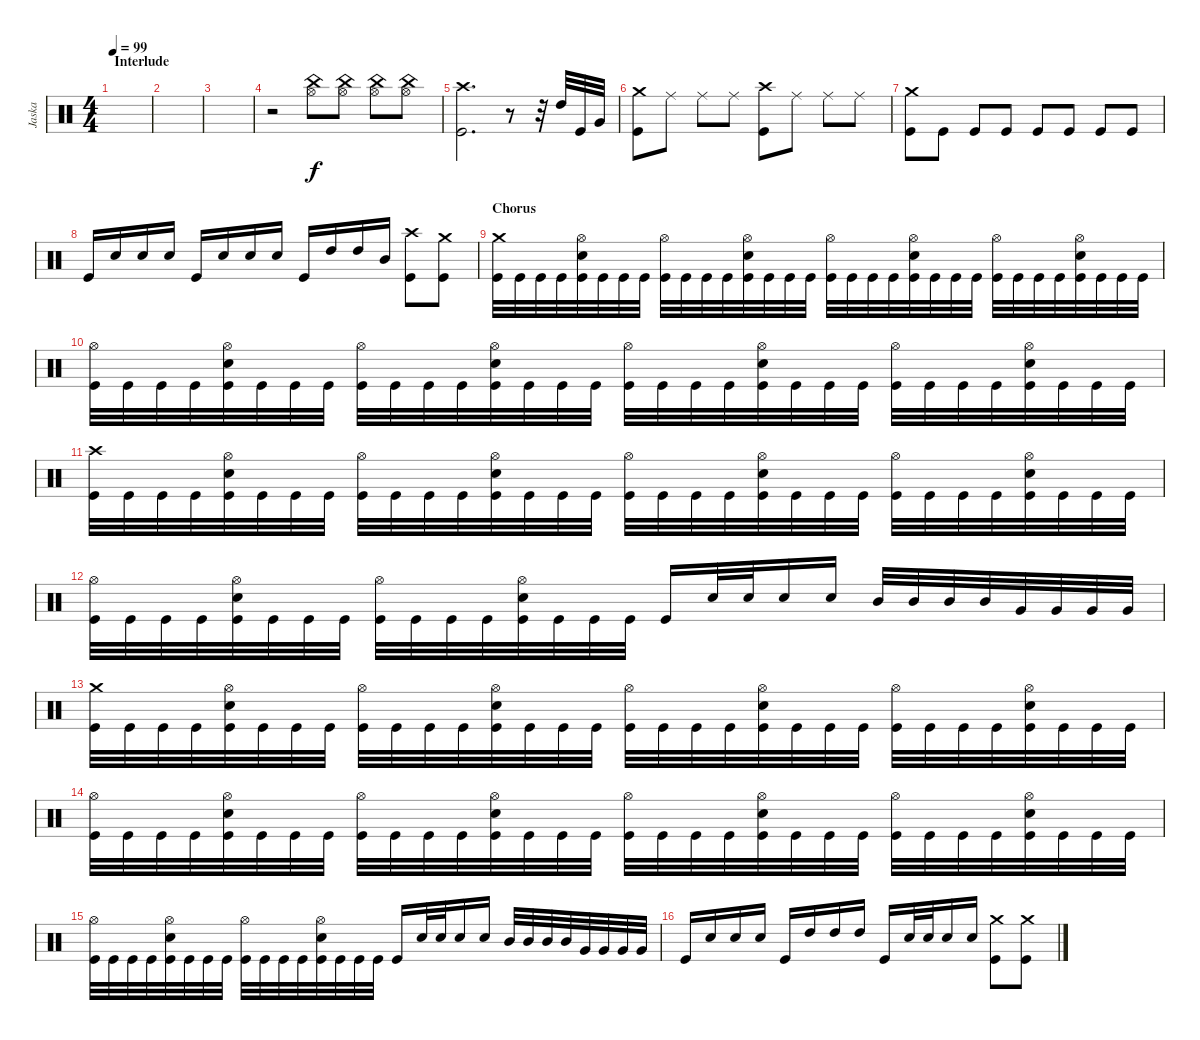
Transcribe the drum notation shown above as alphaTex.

\track ("Jaska" "Jaska") {instrument percussion}
\staff {score}
\articulation defaults
\ts (4 4)
\section ("" "Interlude")
\tempo 99
\clef neutral
\ks c
|
|
|
r.2 ("China (hit)" "Hi-Hat (open)").8 ("China (hit)" "Hi-Hat (open)").8 ("China (hit)" "Hi-Hat (open)").8 ("China (hit)" "Hi-Hat (open)").8 |
("Crash high (hit)" "Kick (hit)").2{d} r.8 r.32 "High Tom (hit)".32 "Kick (hit)".32 "Very Low Tom (hit)".32 |
("Crash medium (hit)" "Kick (hit)").8 "Ride (middle)".8 "Ride (middle)".8 "Ride (middle)".8 ("Crash high (hit)" "Kick (hit)").8 "Ride (middle)".8 "Ride (middle)".8 "Ride (middle)".8 |
("Crash medium (hit)" "Kick (hit)").8 "Kick (hit)".8 "Kick (hit)".8 "Kick (hit)".8 "Kick (hit)".8 "Kick (hit)".8 "Kick (hit)".8 "Kick (hit)".8 |
"Kick (hit)".16 "Electric Snare (hit)".16 "Electric Snare (hit)".16 "Electric Snare (hit)".16 "Kick (hit)".16 "Electric Snare (hit)".16 "Electric Snare (hit)".16 "Electric Snare (hit)".16 "Kick (hit)".16 "High Tom (hit)".16 "High Tom (hit)".16 "Mid Tom (hit)".16 ("Crash high (hit)" "Kick (hit)").8 ("Crash medium (hit)" "Kick (hit)").8 |
\section ("" "Chorus")
("Crash medium (hit)" "Kick (hit)").32 "Kick (hit)".32 "Kick (hit)".32 "Kick (hit)".32 ("Hi-Hat (open)" "Electric Snare (hit)" "Kick (hit)").32 "Kick (hit)".32 "Kick (hit)".32 "Kick (hit)".32 ("Hi-Hat (open)" "Kick (hit)").32 "Kick (hit)".32 "Kick (hit)".32 "Kick (hit)".32 ("Hi-Hat (open)" "Electric Snare (hit)" "Kick (hit)").32 "Kick (hit)".32 "Kick (hit)".32 "Kick (hit)".32 ("Hi-Hat (open)" "Kick (hit)").32 "Kick (hit)".32 "Kick (hit)".32 "Kick (hit)".32 ("Hi-Hat (open)" "Electric Snare (hit)" "Kick (hit)").32 "Kick (hit)".32 "Kick (hit)".32 "Kick (hit)".32 ("Hi-Hat (open)" "Kick (hit)").32 "Kick (hit)".32 "Kick (hit)".32 "Kick (hit)".32 ("Hi-Hat (open)" "Electric Snare (hit)" "Kick (hit)").32 "Kick (hit)".32 "Kick (hit)".32 "Kick (hit)".32 |
("Hi-Hat (open)" "Kick (hit)").32 "Kick (hit)".32 "Kick (hit)".32 "Kick (hit)".32 ("Hi-Hat (open)" "Electric Snare (hit)" "Kick (hit)").32 "Kick (hit)".32 "Kick (hit)".32 "Kick (hit)".32 ("Hi-Hat (open)" "Kick (hit)").32 "Kick (hit)".32 "Kick (hit)".32 "Kick (hit)".32 ("Hi-Hat (open)" "Electric Snare (hit)" "Kick (hit)").32 "Kick (hit)".32 "Kick (hit)".32 "Kick (hit)".32 ("Hi-Hat (open)" "Kick (hit)").32 "Kick (hit)".32 "Kick (hit)".32 "Kick (hit)".32 ("Hi-Hat (open)" "Electric Snare (hit)" "Kick (hit)").32 "Kick (hit)".32 "Kick (hit)".32 "Kick (hit)".32 ("Hi-Hat (open)" "Kick (hit)").32 "Kick (hit)".32 "Kick (hit)".32 "Kick (hit)".32 ("Hi-Hat (open)" "Electric Snare (hit)" "Kick (hit)").32 "Kick (hit)".32 "Kick (hit)".32 "Kick (hit)".32 |
("Crash high (hit)" "Kick (hit)").32 "Kick (hit)".32 "Kick (hit)".32 "Kick (hit)".32 ("Hi-Hat (open)" "Electric Snare (hit)" "Kick (hit)").32 "Kick (hit)".32 "Kick (hit)".32 "Kick (hit)".32 ("Hi-Hat (open)" "Kick (hit)").32 "Kick (hit)".32 "Kick (hit)".32 "Kick (hit)".32 ("Hi-Hat (open)" "Electric Snare (hit)" "Kick (hit)").32 "Kick (hit)".32 "Kick (hit)".32 "Kick (hit)".32 ("Hi-Hat (open)" "Kick (hit)").32 "Kick (hit)".32 "Kick (hit)".32 "Kick (hit)".32 ("Hi-Hat (open)" "Electric Snare (hit)" "Kick (hit)").32 "Kick (hit)".32 "Kick (hit)".32 "Kick (hit)".32 ("Hi-Hat (open)" "Kick (hit)").32 "Kick (hit)".32 "Kick (hit)".32 "Kick (hit)".32 ("Hi-Hat (open)" "Electric Snare (hit)" "Kick (hit)").32 "Kick (hit)".32 "Kick (hit)".32 "Kick (hit)".32 |
("Hi-Hat (open)" "Kick (hit)").32 "Kick (hit)".32 "Kick (hit)".32 "Kick (hit)".32 ("Hi-Hat (open)" "Electric Snare (hit)" "Kick (hit)").32 "Kick (hit)".32 "Kick (hit)".32 "Kick (hit)".32 ("Hi-Hat (open)" "Kick (hit)").32 "Kick (hit)".32 "Kick (hit)".32 "Kick (hit)".32 ("Hi-Hat (open)" "Electric Snare (hit)" "Kick (hit)").32 "Kick (hit)".32 "Kick (hit)".32 "Kick (hit)".32 "Kick (hit)".16 "Electric Snare (hit)".32 "Electric Snare (hit)".32 "Electric Snare (hit)".16 "Electric Snare (hit)".16 "Mid Tom (hit)".32 "Mid Tom (hit)".32 "Mid Tom (hit)".32 "Mid Tom (hit)".32 "Very Low Tom (hit)".32 "Very Low Tom (hit)".32 "Very Low Tom (hit)".32 "Very Low Tom (hit)".32 |
("Crash medium (hit)" "Kick (hit)").32 "Kick (hit)".32 "Kick (hit)".32 "Kick (hit)".32 ("Hi-Hat (open)" "Electric Snare (hit)" "Kick (hit)").32 "Kick (hit)".32 "Kick (hit)".32 "Kick (hit)".32 ("Hi-Hat (open)" "Kick (hit)").32 "Kick (hit)".32 "Kick (hit)".32 "Kick (hit)".32 ("Hi-Hat (open)" "Electric Snare (hit)" "Kick (hit)").32 "Kick (hit)".32 "Kick (hit)".32 "Kick (hit)".32 ("Hi-Hat (open)" "Kick (hit)").32 "Kick (hit)".32 "Kick (hit)".32 "Kick (hit)".32 ("Hi-Hat (open)" "Electric Snare (hit)" "Kick (hit)").32 "Kick (hit)".32 "Kick (hit)".32 "Kick (hit)".32 ("Hi-Hat (open)" "Kick (hit)").32 "Kick (hit)".32 "Kick (hit)".32 "Kick (hit)".32 ("Hi-Hat (open)" "Electric Snare (hit)" "Kick (hit)").32 "Kick (hit)".32 "Kick (hit)".32 "Kick (hit)".32 |
("Hi-Hat (open)" "Kick (hit)").32 "Kick (hit)".32 "Kick (hit)".32 "Kick (hit)".32 ("Hi-Hat (open)" "Electric Snare (hit)" "Kick (hit)").32 "Kick (hit)".32 "Kick (hit)".32 "Kick (hit)".32 ("Hi-Hat (open)" "Kick (hit)").32 "Kick (hit)".32 "Kick (hit)".32 "Kick (hit)".32 ("Hi-Hat (open)" "Electric Snare (hit)" "Kick (hit)").32 "Kick (hit)".32 "Kick (hit)".32 "Kick (hit)".32 ("Hi-Hat (open)" "Kick (hit)").32 "Kick (hit)".32 "Kick (hit)".32 "Kick (hit)".32 ("Hi-Hat (open)" "Electric Snare (hit)" "Kick (hit)").32 "Kick (hit)".32 "Kick (hit)".32 "Kick (hit)".32 ("Hi-Hat (open)" "Kick (hit)").32 "Kick (hit)".32 "Kick (hit)".32 "Kick (hit)".32 ("Hi-Hat (open)" "Electric Snare (hit)" "Kick (hit)").32 "Kick (hit)".32 "Kick (hit)".32 "Kick (hit)".32 |
("Hi-Hat (open)" "Kick (hit)").32 "Kick (hit)".32 "Kick (hit)".32 "Kick (hit)".32 ("Hi-Hat (open)" "Electric Snare (hit)" "Kick (hit)").32 "Kick (hit)".32 "Kick (hit)".32 "Kick (hit)".32 ("Hi-Hat (open)" "Kick (hit)").32 "Kick (hit)".32 "Kick (hit)".32 "Kick (hit)".32 ("Hi-Hat (open)" "Electric Snare (hit)" "Kick (hit)").32 "Kick (hit)".32 "Kick (hit)".32 "Kick (hit)".32 "Kick (hit)".16 "Electric Snare (hit)".32 "Electric Snare (hit)".32 "Electric Snare (hit)".16 "Electric Snare (hit)".16 "Mid Tom (hit)".32 "Mid Tom (hit)".32 "Mid Tom (hit)".32 "Mid Tom (hit)".32 "Very Low Tom (hit)".32 "Very Low Tom (hit)".32 "Very Low Tom (hit)".32 "Very Low Tom (hit)".32 |
"Kick (hit)".16 "Electric Snare (hit)".16 "Electric Snare (hit)".16 "Electric Snare (hit)".16 "Kick (hit)".16 "High Tom (hit)".16 "High Tom (hit)".16 "High Tom (hit)".16 "Kick (hit)".16 "Electric Snare (hit)".32 "Electric Snare (hit)".32 "Electric Snare (hit)".16 "Electric Snare (hit)".16 ("Crash medium (hit)" "Kick (hit)").8 ("Crash medium (hit)" "Kick (hit)").8
